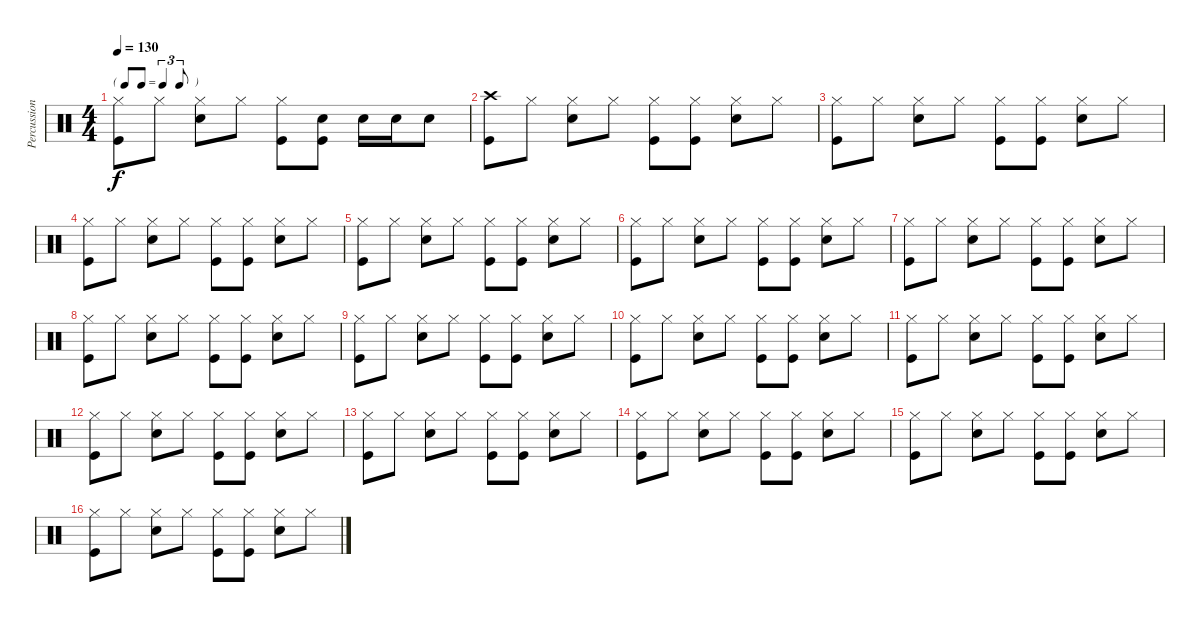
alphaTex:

\track ("Percussion" "Percussion") {instrument percussion}
\staff {score}
\articulation defaults
\ts (4 4)
\tf triplet8th
\tempo 130
\clef neutral
\ks c
("Hi-Hat (closed)" "Kick (hit)").8{dy f} "Hi-Hat (closed)".8 ("Hi-Hat (closed)" "Snare (hit) 2").8 "Hi-Hat (closed)".8 ("Hi-Hat (closed)" "Kick (hit)").8 ("Snare (hit) 2" "Kick (hit)").8 "Snare (hit) 2".16 "Snare (hit) 2".16 "Snare (hit) 2".8 |
("Crash high (hit)" "Kick (hit)").8 "Hi-Hat (closed)".8 ("Hi-Hat (closed)" "Snare (hit) 2").8 "Hi-Hat (closed)".8 ("Hi-Hat (closed)" "Kick (hit)").8 ("Hi-Hat (closed)" "Kick (hit)").8 ("Hi-Hat (closed)" "Snare (hit) 2").8 "Hi-Hat (closed)".8 |
("Hi-Hat (closed)" "Kick (hit)").8 "Hi-Hat (closed)".8 ("Hi-Hat (closed)" "Snare (hit) 2").8 "Hi-Hat (closed)".8 ("Hi-Hat (closed)" "Kick (hit)").8 ("Hi-Hat (closed)" "Kick (hit)").8 ("Hi-Hat (closed)" "Snare (hit) 2").8 "Hi-Hat (closed)".8 |
("Hi-Hat (closed)" "Kick (hit)").8 "Hi-Hat (closed)".8 ("Hi-Hat (closed)" "Snare (hit) 2").8 "Hi-Hat (closed)".8 ("Hi-Hat (closed)" "Kick (hit)").8 ("Hi-Hat (closed)" "Kick (hit)").8 ("Hi-Hat (closed)" "Snare (hit) 2").8 "Hi-Hat (closed)".8 |
("Hi-Hat (closed)" "Kick (hit)").8 "Hi-Hat (closed)".8 ("Hi-Hat (closed)" "Snare (hit) 2").8 "Hi-Hat (closed)".8 ("Hi-Hat (closed)" "Kick (hit)").8 ("Hi-Hat (closed)" "Kick (hit)").8 ("Hi-Hat (closed)" "Snare (hit) 2").8 "Hi-Hat (closed)".8 |
("Hi-Hat (closed)" "Kick (hit)").8 "Hi-Hat (closed)".8 ("Hi-Hat (closed)" "Snare (hit) 2").8 "Hi-Hat (closed)".8 ("Hi-Hat (closed)" "Kick (hit)").8 ("Hi-Hat (closed)" "Kick (hit)").8 ("Hi-Hat (closed)" "Snare (hit) 2").8 "Hi-Hat (closed)".8 |
("Hi-Hat (closed)" "Kick (hit)").8 "Hi-Hat (closed)".8 ("Hi-Hat (closed)" "Snare (hit) 2").8 "Hi-Hat (closed)".8 ("Hi-Hat (closed)" "Kick (hit)").8 ("Hi-Hat (closed)" "Kick (hit)").8 ("Hi-Hat (closed)" "Snare (hit) 2").8 "Hi-Hat (closed)".8 |
("Hi-Hat (closed)" "Kick (hit)").8 "Hi-Hat (closed)".8 ("Hi-Hat (closed)" "Snare (hit) 2").8 "Hi-Hat (closed)".8 ("Hi-Hat (closed)" "Kick (hit)").8 ("Hi-Hat (closed)" "Kick (hit)").8 ("Hi-Hat (closed)" "Snare (hit) 2").8 "Hi-Hat (closed)".8 |
("Hi-Hat (closed)" "Kick (hit)").8 "Hi-Hat (closed)".8 ("Hi-Hat (closed)" "Snare (hit) 2").8 "Hi-Hat (closed)".8 ("Hi-Hat (closed)" "Kick (hit)").8 ("Hi-Hat (closed)" "Kick (hit)").8 ("Hi-Hat (closed)" "Snare (hit) 2").8 "Hi-Hat (closed)".8 |
("Hi-Hat (closed)" "Kick (hit)").8 "Hi-Hat (closed)".8 ("Hi-Hat (closed)" "Snare (hit) 2").8 "Hi-Hat (closed)".8 ("Hi-Hat (closed)" "Kick (hit)").8 ("Hi-Hat (closed)" "Kick (hit)").8 ("Hi-Hat (closed)" "Snare (hit) 2").8 "Hi-Hat (closed)".8 |
("Hi-Hat (closed)" "Kick (hit)").8 "Hi-Hat (closed)".8 ("Hi-Hat (closed)" "Snare (hit) 2").8 "Hi-Hat (closed)".8 ("Hi-Hat (closed)" "Kick (hit)").8 ("Hi-Hat (closed)" "Kick (hit)").8 ("Hi-Hat (closed)" "Snare (hit) 2").8 "Hi-Hat (closed)".8 |
("Hi-Hat (closed)" "Kick (hit)").8 "Hi-Hat (closed)".8 ("Hi-Hat (closed)" "Snare (hit) 2").8 "Hi-Hat (closed)".8 ("Hi-Hat (closed)" "Kick (hit)").8 ("Hi-Hat (closed)" "Kick (hit)").8 ("Hi-Hat (closed)" "Snare (hit) 2").8 "Hi-Hat (closed)".8 |
("Hi-Hat (closed)" "Kick (hit)").8 "Hi-Hat (closed)".8 ("Hi-Hat (closed)" "Snare (hit) 2").8 "Hi-Hat (closed)".8 ("Hi-Hat (closed)" "Kick (hit)").8 ("Hi-Hat (closed)" "Kick (hit)").8 ("Hi-Hat (closed)" "Snare (hit) 2").8 "Hi-Hat (closed)".8 |
("Hi-Hat (closed)" "Kick (hit)").8 "Hi-Hat (closed)".8 ("Hi-Hat (closed)" "Snare (hit) 2").8 "Hi-Hat (closed)".8 ("Hi-Hat (closed)" "Kick (hit)").8 ("Hi-Hat (closed)" "Kick (hit)").8 ("Hi-Hat (closed)" "Snare (hit) 2").8 "Hi-Hat (closed)".8 |
("Hi-Hat (closed)" "Kick (hit)").8 "Hi-Hat (closed)".8 ("Hi-Hat (closed)" "Snare (hit) 2").8 "Hi-Hat (closed)".8 ("Hi-Hat (closed)" "Kick (hit)").8 ("Hi-Hat (closed)" "Kick (hit)").8 ("Hi-Hat (closed)" "Snare (hit) 2").8 "Hi-Hat (closed)".8 |
("Hi-Hat (closed)" "Kick (hit)").8 "Hi-Hat (closed)".8 ("Hi-Hat (closed)" "Snare (hit) 2").8 "Hi-Hat (closed)".8 ("Hi-Hat (closed)" "Kick (hit)").8 ("Hi-Hat (closed)" "Kick (hit)").8 ("Hi-Hat (closed)" "Snare (hit) 2").8 "Hi-Hat (closed)".8
